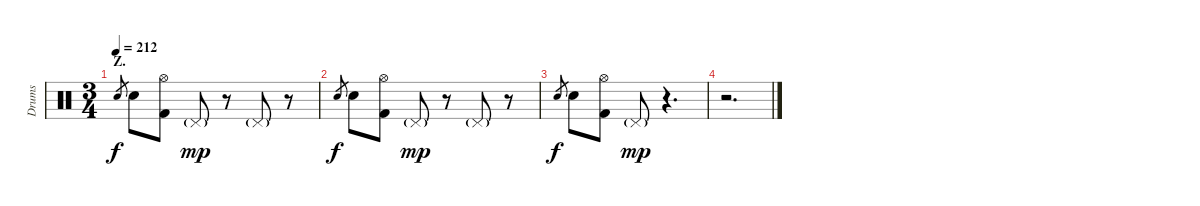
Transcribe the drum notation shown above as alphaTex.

\track ("Drums" "Drums") {instrument percussion}
\staff {score}
\articulation defaults
\ts (3 4)
\section ("" "Z.")
\tempo 212
\clef neutral
\ks c "Electric Snare (hit)".8{gr dy f} "Electric Snare (hit)".8
("Hi-Hat (open)" "Kick (hit) 2").8 "Pedal Hi-Hat (hit)"{g}.8{dy mp} r.8 "Pedal Hi-Hat (hit)"{g}.8 r.8 |
"Electric Snare (hit)".8{gr dy f} "Electric Snare (hit)".8 ("Hi-Hat (open)" "Kick (hit) 2").8 "Pedal Hi-Hat (hit)"{g}.8{dy mp} r.8 "Pedal Hi-Hat (hit)"{g}.8 r.8 |
"Electric Snare (hit)".8{gr dy f} "Electric Snare (hit)".8 ("Hi-Hat (open)" "Kick (hit) 2").8 "Pedal Hi-Hat (hit)"{g}.8{dy mp} r.4{d} |
r.2{d}
